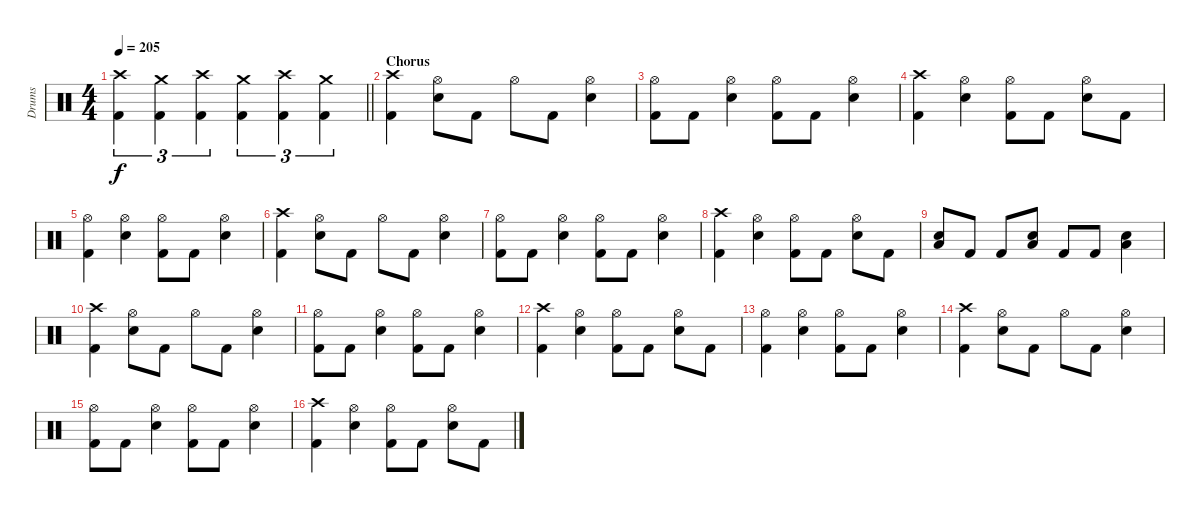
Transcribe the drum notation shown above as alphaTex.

\track ("Drums" "Drums") {instrument percussion}
\staff {score}
\articulation defaults
\ts (4 4)
\tempo 205
\clef neutral
\barLineRight lightlight
\ks c
("Crash high (hit)" "Kick (hit) 2").4{tu (3 2) dy f} ("Crash medium (hit)" "Kick (hit) 2").4{tu (3 2)} ("Crash high (hit)" "Kick (hit) 2").4{tu (3 2)} ("Crash medium (hit)" "Kick (hit) 2").4{tu (3 2)} ("Crash high (hit)" "Kick (hit) 2").4{tu (3 2)} ("Crash medium (hit)" "Kick (hit) 2").4{tu (3 2)} |
\section ("" "Chorus")
("Crash high (hit)" "Kick (hit) 2").4 ("Hi-Hat (open)" "Electric Snare (hit)").8 "Kick (hit) 2".8 "Hi-Hat (open)".8 "Kick (hit) 2".8 ("Hi-Hat (open)" "Electric Snare (hit)").4 |
("Hi-Hat (open)" "Kick (hit) 2").8 "Kick (hit) 2".8 ("Hi-Hat (open)" "Electric Snare (hit)").4 ("Hi-Hat (open)" "Kick (hit) 2").8 "Kick (hit) 2".8 ("Hi-Hat (open)" "Electric Snare (hit)").4 |
("Crash high (hit)" "Kick (hit) 2").4 ("Hi-Hat (open)" "Electric Snare (hit)").4 ("Hi-Hat (open)" "Kick (hit) 2").8 "Kick (hit) 2".8 ("Hi-Hat (open)" "Electric Snare (hit)").8 "Kick (hit) 2".8 |
("Hi-Hat (open)" "Kick (hit) 2").4 ("Hi-Hat (open)" "Electric Snare (hit)").4 ("Hi-Hat (open)" "Kick (hit) 2").8 "Kick (hit) 2".8 ("Hi-Hat (open)" "Electric Snare (hit)").4 |
("Crash high (hit)" "Kick (hit) 2").4 ("Hi-Hat (open)" "Electric Snare (hit)").8 "Kick (hit) 2".8 "Hi-Hat (open)".8 "Kick (hit) 2".8 ("Hi-Hat (open)" "Electric Snare (hit)").4 |
("Hi-Hat (open)" "Kick (hit) 2").8 "Kick (hit) 2".8 ("Hi-Hat (open)" "Electric Snare (hit)").4 ("Hi-Hat (open)" "Kick (hit) 2").8 "Kick (hit) 2".8 ("Hi-Hat (open)" "Electric Snare (hit)").4 |
("Crash high (hit)" "Kick (hit) 2").4 ("Hi-Hat (open)" "Electric Snare (hit)").4 ("Hi-Hat (open)" "Kick (hit) 2").8 "Kick (hit) 2".8 ("Hi-Hat (open)" "Electric Snare (hit)").8 "Kick (hit) 2".8 |
("Electric Snare (hit)" "Low Tom (hit)").8 "Kick (hit) 2".8 "Kick (hit) 2".8 ("Electric Snare (hit)" "Low Tom (hit)").8 "Kick (hit) 2".8 "Kick (hit) 2".8 ("Electric Snare (hit)" "Low Tom (hit)").4 |
("Crash high (hit)" "Kick (hit) 2").4 ("Hi-Hat (open)" "Electric Snare (hit)").8 "Kick (hit) 2".8 "Hi-Hat (open)".8 "Kick (hit) 2".8 ("Hi-Hat (open)" "Electric Snare (hit)").4 |
("Hi-Hat (open)" "Kick (hit) 2").8 "Kick (hit) 2".8 ("Hi-Hat (open)" "Electric Snare (hit)").4 ("Hi-Hat (open)" "Kick (hit) 2").8 "Kick (hit) 2".8 ("Hi-Hat (open)" "Electric Snare (hit)").4 |
("Crash high (hit)" "Kick (hit) 2").4 ("Hi-Hat (open)" "Electric Snare (hit)").4 ("Hi-Hat (open)" "Kick (hit) 2").8 "Kick (hit) 2".8 ("Hi-Hat (open)" "Electric Snare (hit)").8 "Kick (hit) 2".8 |
("Hi-Hat (open)" "Kick (hit) 2").4 ("Hi-Hat (open)" "Electric Snare (hit)").4 ("Hi-Hat (open)" "Kick (hit) 2").8 "Kick (hit) 2".8 ("Hi-Hat (open)" "Electric Snare (hit)").4 |
("Crash high (hit)" "Kick (hit) 2").4 ("Hi-Hat (open)" "Electric Snare (hit)").8 "Kick (hit) 2".8 "Hi-Hat (open)".8 "Kick (hit) 2".8 ("Hi-Hat (open)" "Electric Snare (hit)").4 |
("Hi-Hat (open)" "Kick (hit) 2").8 "Kick (hit) 2".8 ("Hi-Hat (open)" "Electric Snare (hit)").4 ("Hi-Hat (open)" "Kick (hit) 2").8 "Kick (hit) 2".8 ("Hi-Hat (open)" "Electric Snare (hit)").4 |
("Crash high (hit)" "Kick (hit) 2").4 ("Hi-Hat (open)" "Electric Snare (hit)").4 ("Hi-Hat (open)" "Kick (hit) 2").8 "Kick (hit) 2".8 ("Hi-Hat (open)" "Electric Snare (hit)").8 "Kick (hit) 2".8
